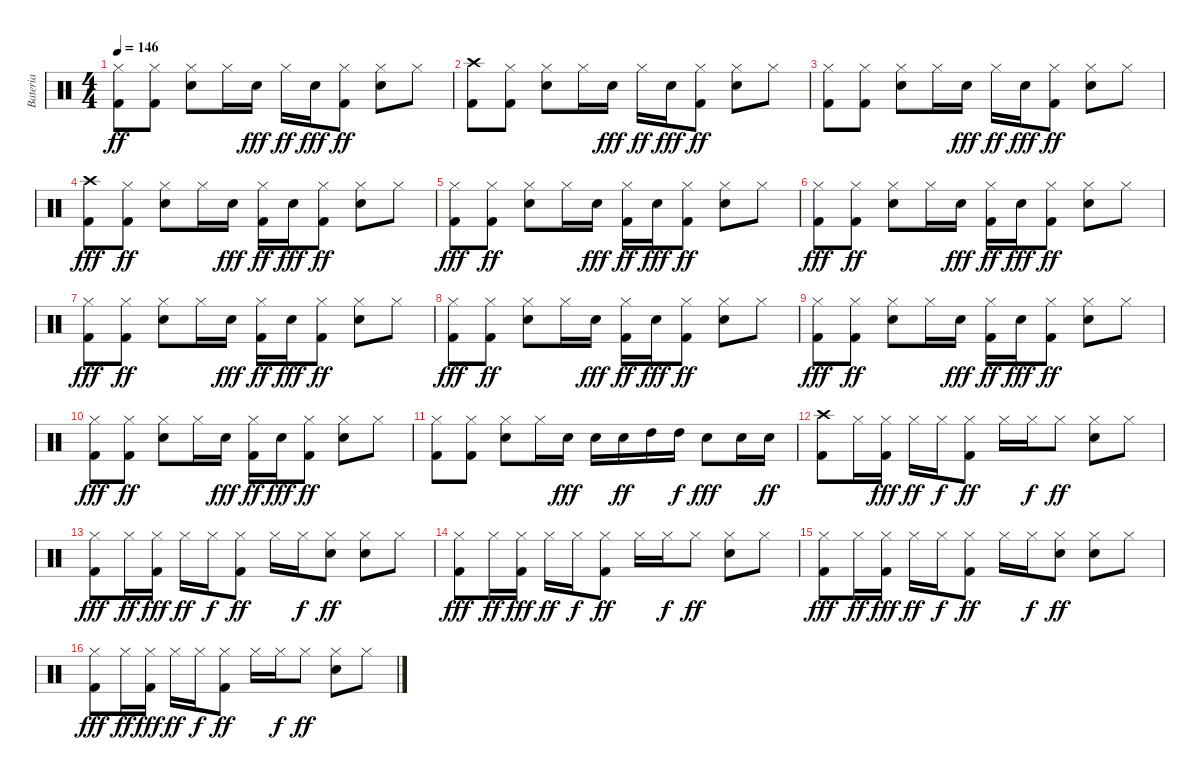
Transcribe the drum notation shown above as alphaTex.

\track ("Bateria" "Bateria") {instrument percussion}
\staff {score}
\articulation defaults
\ts (4 4)
\tempo 146
\clef neutral
\ks c
("Hi-Hat (closed)" "Kick (hit) 2").8{dy ff} ("Kick (hit) 2" "Hi-Hat (closed)").8 ("Electric Snare (hit)" "Hi-Hat (closed)").8 "Hi-Hat (closed)".16 "Electric Snare (hit)".16{dy fff} "Hi-Hat (closed)".16{dy ff} "Electric Snare (hit)".16{dy fff} ("Kick (hit) 2" "Hi-Hat (closed)").8{dy ff} ("Electric Snare (hit)" "Hi-Hat (closed)").8 "Hi-Hat (closed)".8 |
("Crash high (hit)" "Kick (hit) 2").8 ("Kick (hit) 2" "Hi-Hat (closed)").8 ("Electric Snare (hit)" "Hi-Hat (closed)").8 "Hi-Hat (closed)".16 "Electric Snare (hit)".16{dy fff} "Hi-Hat (closed)".16{dy ff} "Electric Snare (hit)".16{dy fff} ("Kick (hit) 2" "Hi-Hat (closed)").8{dy ff} ("Electric Snare (hit)" "Hi-Hat (closed)").8 "Hi-Hat (closed)".8 |
("Kick (hit) 2" "Hi-Hat (closed)").8 ("Kick (hit) 2" "Hi-Hat (closed)").8 ("Electric Snare (hit)" "Hi-Hat (closed)").8 "Hi-Hat (closed)".16 "Electric Snare (hit)".16{dy fff} "Hi-Hat (closed)".16{dy ff} "Electric Snare (hit)".16{dy fff} ("Kick (hit) 2" "Hi-Hat (closed)").8{dy ff} ("Electric Snare (hit)" "Hi-Hat (closed)").8 "Hi-Hat (closed)".8 |
("Crash high (hit)" "Kick (hit) 2").8{dy fff} ("Kick (hit) 2" "Hi-Hat (closed)").8{dy ff} ("Electric Snare (hit)" "Hi-Hat (closed)").8 "Hi-Hat (closed)".16 "Electric Snare (hit)".16{dy fff} ("Kick (hit) 2" "Hi-Hat (closed)").16{dy ff} "Electric Snare (hit)".16{dy fff} ("Kick (hit) 2" "Hi-Hat (closed)").8{dy ff} ("Electric Snare (hit)" "Hi-Hat (closed)").8 "Hi-Hat (closed)".8 |
("Kick (hit) 2" "Hi-Hat (closed)").8{dy fff} ("Kick (hit) 2" "Hi-Hat (closed)").8{dy ff} ("Electric Snare (hit)" "Hi-Hat (closed)").8 "Hi-Hat (closed)".16 "Electric Snare (hit)".16{dy fff} ("Kick (hit) 2" "Hi-Hat (closed)").16{dy ff} "Electric Snare (hit)".16{dy fff} ("Kick (hit) 2" "Hi-Hat (closed)").8{dy ff} ("Electric Snare (hit)" "Hi-Hat (closed)").8 "Hi-Hat (closed)".8 |
("Kick (hit) 2" "Hi-Hat (closed)").8{dy fff} ("Kick (hit) 2" "Hi-Hat (closed)").8{dy ff} ("Electric Snare (hit)" "Hi-Hat (closed)").8 "Hi-Hat (closed)".16 "Electric Snare (hit)".16{dy fff} ("Kick (hit) 2" "Hi-Hat (closed)").16{dy ff} "Electric Snare (hit)".16{dy fff} ("Kick (hit) 2" "Hi-Hat (closed)").8{dy ff} ("Electric Snare (hit)" "Hi-Hat (closed)").8 "Hi-Hat (closed)".8 |
("Kick (hit) 2" "Hi-Hat (closed)").8{dy fff} ("Kick (hit) 2" "Hi-Hat (closed)").8{dy ff} ("Electric Snare (hit)" "Hi-Hat (closed)").8 "Hi-Hat (closed)".16 "Electric Snare (hit)".16{dy fff} ("Kick (hit) 2" "Hi-Hat (closed)").16{dy ff} "Electric Snare (hit)".16{dy fff} ("Kick (hit) 2" "Hi-Hat (closed)").8{dy ff} ("Electric Snare (hit)" "Hi-Hat (closed)").8 "Hi-Hat (closed)".8 |
("Kick (hit) 2" "Hi-Hat (closed)").8{dy fff} ("Kick (hit) 2" "Hi-Hat (closed)").8{dy ff} ("Electric Snare (hit)" "Hi-Hat (closed)").8 "Hi-Hat (closed)".16 "Electric Snare (hit)".16{dy fff} ("Kick (hit) 2" "Hi-Hat (closed)").16{dy ff} "Electric Snare (hit)".16{dy fff} ("Kick (hit) 2" "Hi-Hat (closed)").8{dy ff} ("Electric Snare (hit)" "Hi-Hat (closed)").8 "Hi-Hat (closed)".8 |
("Kick (hit) 2" "Hi-Hat (closed)").8{dy fff} ("Kick (hit) 2" "Hi-Hat (closed)").8{dy ff} ("Electric Snare (hit)" "Hi-Hat (closed)").8 "Hi-Hat (closed)".16 "Electric Snare (hit)".16{dy fff} ("Kick (hit) 2" "Hi-Hat (closed)").16{dy ff} "Electric Snare (hit)".16{dy fff} ("Kick (hit) 2" "Hi-Hat (closed)").8{dy ff} ("Electric Snare (hit)" "Hi-Hat (closed)").8 "Hi-Hat (closed)".8 |
("Kick (hit) 2" "Hi-Hat (closed)").8{dy fff} ("Kick (hit) 2" "Hi-Hat (closed)").8{dy ff} ("Electric Snare (hit)" "Hi-Hat (closed)").8 "Hi-Hat (closed)".16 "Electric Snare (hit)".16{dy fff} ("Kick (hit) 2" "Hi-Hat (closed)").16{dy ff} "Electric Snare (hit)".16{dy fff} ("Kick (hit) 2" "Hi-Hat (closed)").8{dy ff} ("Electric Snare (hit)" "Hi-Hat (closed)").8 "Hi-Hat (closed)".8 |
("Kick (hit) 2" "Hi-Hat (closed)").8 ("Kick (hit) 2" "Hi-Hat (closed)").8 ("Electric Snare (hit)" "Hi-Hat (closed)").8 "Hi-Hat (closed)".16 "Electric Snare (hit)".16{dy fff} "Electric Snare (hit)".16 "Electric Snare (hit)".16{dy ff} "High Tom (hit)".16 "High Tom (hit)".16{dy f} "Electric Snare (hit)".8{dy fff} "Electric Snare (hit)".16 "Electric Snare (hit)".16{dy ff} |
("Kick (hit) 2" "Crash high (hit)").8 "Hi-Hat (closed)".16 ("Kick (hit) 2" "Hi-Hat (closed)").16{dy fff} "Hi-Hat (closed)".16{dy ff} "Hi-Hat (closed)".16{dy f} ("Kick (hit) 2" "Hi-Hat (closed)").8{dy ff} "Hi-Hat (closed)".16 "Hi-Hat (closed)".16{dy f} "Hi-Hat (closed)".8{dy ff} ("Electric Snare (hit)" "Hi-Hat (closed)").8 "Hi-Hat (closed)".8 |
("Hi-Hat (closed)" "Kick (hit) 2").8{dy fff} "Hi-Hat (closed)".16{dy ff} ("Kick (hit) 2" "Hi-Hat (closed)").16{dy fff} "Hi-Hat (closed)".16{dy ff} "Hi-Hat (closed)".16{dy f} ("Kick (hit) 2" "Hi-Hat (closed)").8{dy ff} "Hi-Hat (closed)".16 "Hi-Hat (closed)".16{dy f} ("Electric Snare (hit)" "Hi-Hat (closed)").8{dy ff} ("Electric Snare (hit)" "Hi-Hat (closed)").8 "Hi-Hat (closed)".8 |
("Hi-Hat (closed)" "Kick (hit) 2").8{dy fff} "Hi-Hat (closed)".16{dy ff} ("Kick (hit) 2" "Hi-Hat (closed)").16{dy fff} "Hi-Hat (closed)".16{dy ff} "Hi-Hat (closed)".16{dy f} ("Kick (hit) 2" "Hi-Hat (closed)").8{dy ff} "Hi-Hat (closed)".16 "Hi-Hat (closed)".16{dy f} "Hi-Hat (closed)".8{dy ff} ("Electric Snare (hit)" "Hi-Hat (closed)").8 "Hi-Hat (closed)".8 |
("Hi-Hat (closed)" "Kick (hit) 2").8{dy fff} "Hi-Hat (closed)".16{dy ff} ("Kick (hit) 2" "Hi-Hat (closed)").16{dy fff} "Hi-Hat (closed)".16{dy ff} "Hi-Hat (closed)".16{dy f} ("Kick (hit) 2" "Hi-Hat (closed)").8{dy ff} "Hi-Hat (closed)".16 "Hi-Hat (closed)".16{dy f} ("Electric Snare (hit)" "Hi-Hat (closed)").8{dy ff} ("Electric Snare (hit)" "Hi-Hat (closed)").8 "Hi-Hat (closed)".8 |
("Hi-Hat (closed)" "Kick (hit) 2").8{dy fff} "Hi-Hat (closed)".16{dy ff} ("Kick (hit) 2" "Hi-Hat (closed)").16{dy fff} "Hi-Hat (closed)".16{dy ff} "Hi-Hat (closed)".16{dy f} ("Kick (hit) 2" "Hi-Hat (closed)").8{dy ff} "Hi-Hat (closed)".16 "Hi-Hat (closed)".16{dy f} "Hi-Hat (closed)".8{dy ff} ("Electric Snare (hit)" "Hi-Hat (closed)").8 "Hi-Hat (closed)".8
